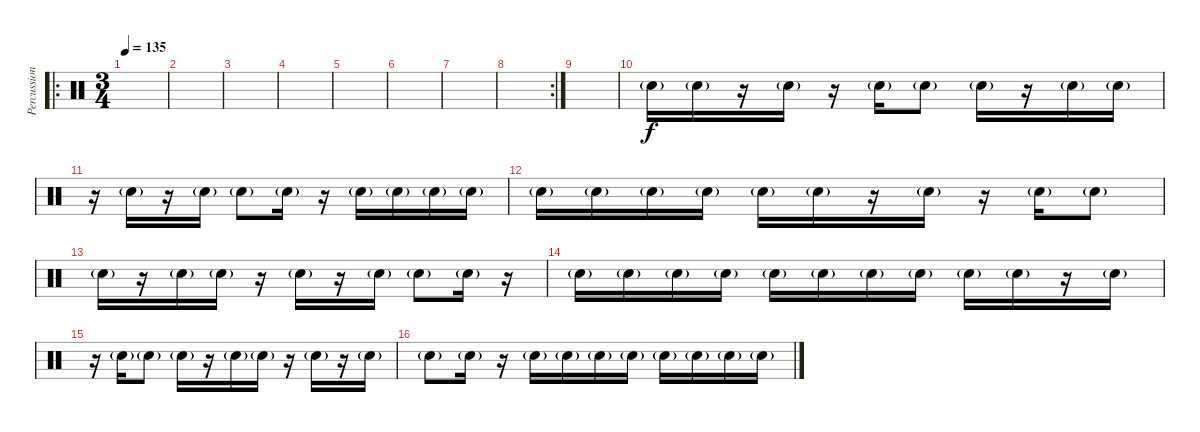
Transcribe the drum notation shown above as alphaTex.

\track ("Percussion" "Percussion") {instrument percussion}
\staff {score}
\articulation defaults
\ro
\ts (3 4)
\section ("" "")
\tempo 135
\clef neutral
\ks c
|
|
|
|
|
|
|
\rc 2
|
|
"Snare (hit) 2"{g}.16{volume 3} "Snare (hit) 2"{g}.16{volume 8} r.16 "Snare (hit) 2"{g}.16 r.16 "Snare (hit) 2"{g}.16 "Snare (hit) 2"{g}.8 "Snare (hit) 2"{g}.16 r.16 "Snare (hit) 2"{g}.16 "Snare (hit) 2"{g}.16 |
r.16 "Snare (hit) 2"{g}.16 r.16 "Snare (hit) 2"{g}.16 "Snare (hit) 2"{g}.8 "Snare (hit) 2"{g}.16 r.16 "Snare (hit) 2"{g}.16 "Snare (hit) 2"{g}.16 "Snare (hit) 2"{g}.16 "Snare (hit) 2"{g}.16 |
"Snare (hit) 2"{g}.16 "Snare (hit) 2"{g}.16 "Snare (hit) 2"{g}.16 "Snare (hit) 2"{g}.16 "Snare (hit) 2"{g}.16 "Snare (hit) 2"{g}.16 r.16 "Snare (hit) 2"{g}.16 r.16 "Snare (hit) 2"{g}.16 "Snare (hit) 2"{g}.8 |
"Snare (hit) 2"{g}.16 r.16 "Snare (hit) 2"{g}.16 "Snare (hit) 2"{g}.16 r.16 "Snare (hit) 2"{g}.16 r.16 "Snare (hit) 2"{g}.16 "Snare (hit) 2"{g}.8 "Snare (hit) 2"{g}.16 r.16 |
"Snare (hit) 2"{g}.16 "Snare (hit) 2"{g}.16 "Snare (hit) 2"{g}.16 "Snare (hit) 2"{g}.16 "Snare (hit) 2"{g}.16 "Snare (hit) 2"{g}.16 "Snare (hit) 2"{g}.16 "Snare (hit) 2"{g}.16 "Snare (hit) 2"{g}.16 "Snare (hit) 2"{g}.16 r.16 "Snare (hit) 2"{g}.16 |
r.16 "Snare (hit) 2"{g}.16 "Snare (hit) 2"{g}.8 "Snare (hit) 2"{g}.16 r.16 "Snare (hit) 2"{g}.16 "Snare (hit) 2"{g}.16 r.16 "Snare (hit) 2"{g}.16 r.16 "Snare (hit) 2"{g}.16 |
"Snare (hit) 2"{g}.8 "Snare (hit) 2"{g}.16 r.16 "Snare (hit) 2"{g}.16 "Snare (hit) 2"{g}.16 "Snare (hit) 2"{g}.16 "Snare (hit) 2"{g}.16 "Snare (hit) 2"{g}.16 "Snare (hit) 2"{g}.16 "Snare (hit) 2"{g}.16 "Snare (hit) 2"{g}.16
